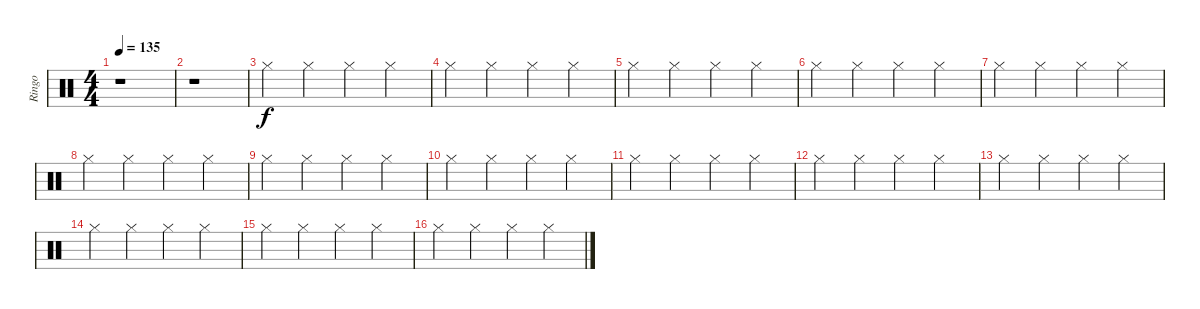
\track ("Ringo" "Ringo") {instrument percussion}
\staff {score}
\articulation defaults
\ts (4 4)
\tempo 135
\clef neutral
\ks c
r.1{dy f} |
r.1 |
"Hi-Hat (closed)".4 "Hi-Hat (closed)".4 "Hi-Hat (closed)".4 "Hi-Hat (closed)".4 |
"Hi-Hat (closed)".4 "Hi-Hat (closed)".4 "Hi-Hat (closed)".4 "Hi-Hat (closed)".4 |
"Hi-Hat (closed)".4 "Hi-Hat (closed)".4 "Hi-Hat (closed)".4 "Hi-Hat (closed)".4 |
"Hi-Hat (closed)".4 "Hi-Hat (closed)".4 "Hi-Hat (closed)".4 "Hi-Hat (closed)".4 |
"Hi-Hat (closed)".4 "Hi-Hat (closed)".4 "Hi-Hat (closed)".4 "Hi-Hat (closed)".4 |
"Hi-Hat (closed)".4 "Hi-Hat (closed)".4 "Hi-Hat (closed)".4 "Hi-Hat (closed)".4 |
"Hi-Hat (closed)".4 "Hi-Hat (closed)".4 "Hi-Hat (closed)".4 "Hi-Hat (closed)".4 |
"Hi-Hat (closed)".4 "Hi-Hat (closed)".4 "Hi-Hat (closed)".4 "Hi-Hat (closed)".4 |
"Hi-Hat (closed)".4 "Hi-Hat (closed)".4 "Hi-Hat (closed)".4 "Hi-Hat (closed)".4 |
"Hi-Hat (closed)".4 "Hi-Hat (closed)".4 "Hi-Hat (closed)".4 "Hi-Hat (closed)".4 |
"Hi-Hat (closed)".4 "Hi-Hat (closed)".4 "Hi-Hat (closed)".4 "Hi-Hat (closed)".4 |
"Hi-Hat (closed)".4{volume 13} "Hi-Hat (closed)".4 "Hi-Hat (closed)".4 "Hi-Hat (closed)".4 |
"Hi-Hat (closed)".4 "Hi-Hat (closed)".4 "Hi-Hat (closed)".4 "Hi-Hat (closed)".4 |
"Hi-Hat (closed)".4{volume 10} "Hi-Hat (closed)".4 "Hi-Hat (closed)".4 "Hi-Hat (closed)".4
